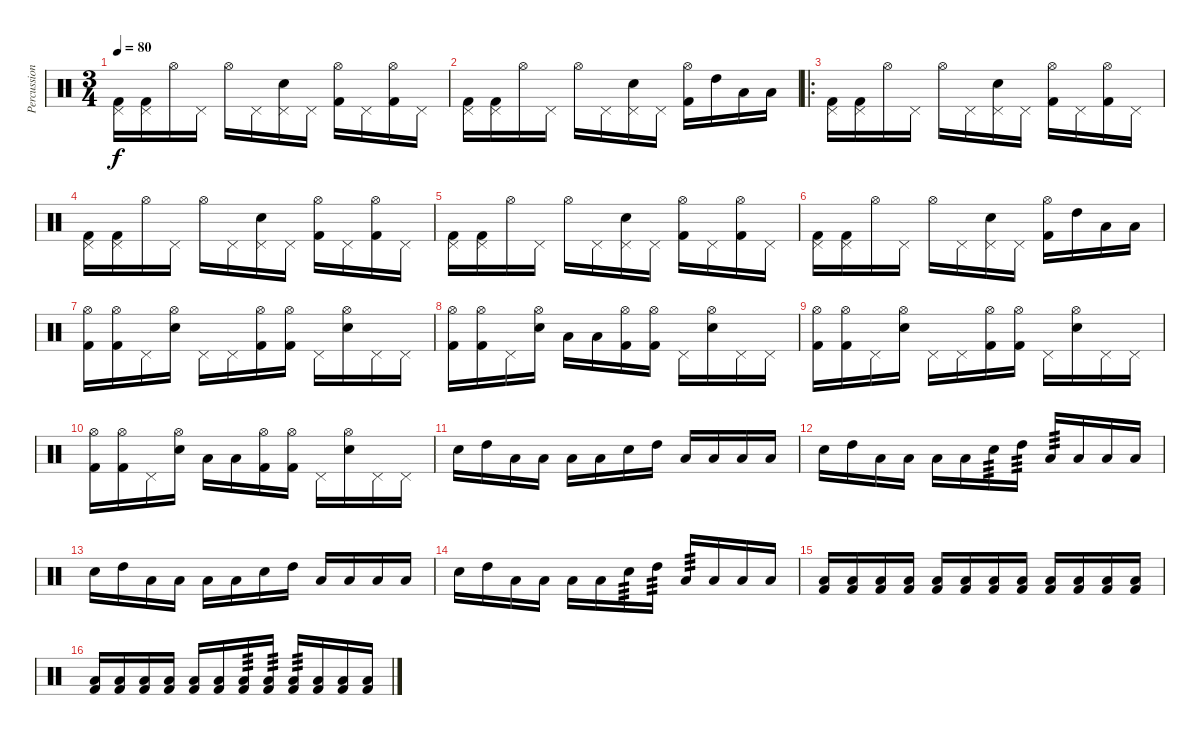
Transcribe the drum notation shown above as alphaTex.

\track ("Percussion" "Percussion") {instrument percussion}
\staff {score}
\articulation defaults
\ts (3 4)
\tempo 80
\clef neutral
\ks c
("Pedal Hi-Hat (hit)" "Kick (hit) 2").16{dy f} ("Pedal Hi-Hat (hit)" "Kick (hit) 2").16 "Hi-Hat (open)".16 "Pedal Hi-Hat (hit)".16 "Hi-Hat (open)".16 "Pedal Hi-Hat (hit)".16 ("Pedal Hi-Hat (hit)" "Electric Snare (hit)").16 "Pedal Hi-Hat (hit)".16 ("Hi-Hat (open)" "Kick (hit) 2").16 "Pedal Hi-Hat (hit)".16 ("Hi-Hat (open)" "Kick (hit) 2").16 "Pedal Hi-Hat (hit)".16 |
("Pedal Hi-Hat (hit)" "Kick (hit) 2").16 ("Pedal Hi-Hat (hit)" "Kick (hit) 2").16 "Hi-Hat (open)".16 "Pedal Hi-Hat (hit)".16 "Hi-Hat (open)".16 "Pedal Hi-Hat (hit)".16 ("Pedal Hi-Hat (hit)" "Electric Snare (hit)").16 "Pedal Hi-Hat (hit)".16 ("Hi-Hat (open)" "Kick (hit) 2").16 "High Tom (hit)".16 "Low Tom (hit)".16 "Low Floor Tom (hit)".16 |
\ro
("Pedal Hi-Hat (hit)" "Kick (hit) 2").16 ("Pedal Hi-Hat (hit)" "Kick (hit) 2").16 "Hi-Hat (open)".16 "Pedal Hi-Hat (hit)".16 "Hi-Hat (open)".16 "Pedal Hi-Hat (hit)".16 ("Pedal Hi-Hat (hit)" "Electric Snare (hit)").16 "Pedal Hi-Hat (hit)".16 ("Hi-Hat (open)" "Kick (hit) 2").16 "Pedal Hi-Hat (hit)".16 ("Hi-Hat (open)" "Kick (hit) 2").16 "Pedal Hi-Hat (hit)".16 |
("Pedal Hi-Hat (hit)" "Kick (hit) 2").16 ("Pedal Hi-Hat (hit)" "Kick (hit) 2").16 "Hi-Hat (open)".16 "Pedal Hi-Hat (hit)".16 "Hi-Hat (open)".16 "Pedal Hi-Hat (hit)".16 ("Pedal Hi-Hat (hit)" "Electric Snare (hit)").16 "Pedal Hi-Hat (hit)".16 ("Hi-Hat (open)" "Kick (hit) 2").16 "Pedal Hi-Hat (hit)".16 ("Hi-Hat (open)" "Kick (hit) 2").16 "Pedal Hi-Hat (hit)".16 |
("Pedal Hi-Hat (hit)" "Kick (hit) 2").16 ("Pedal Hi-Hat (hit)" "Kick (hit) 2").16 "Hi-Hat (open)".16 "Pedal Hi-Hat (hit)".16 "Hi-Hat (open)".16 "Pedal Hi-Hat (hit)".16 ("Pedal Hi-Hat (hit)" "Electric Snare (hit)").16 "Pedal Hi-Hat (hit)".16 ("Hi-Hat (open)" "Kick (hit) 2").16 "Pedal Hi-Hat (hit)".16 ("Hi-Hat (open)" "Kick (hit) 2").16 "Pedal Hi-Hat (hit)".16 |
("Pedal Hi-Hat (hit)" "Kick (hit) 2").16 ("Pedal Hi-Hat (hit)" "Kick (hit) 2").16 "Hi-Hat (open)".16 "Pedal Hi-Hat (hit)".16 "Hi-Hat (open)".16 "Pedal Hi-Hat (hit)".16 ("Pedal Hi-Hat (hit)" "Electric Snare (hit)").16 "Pedal Hi-Hat (hit)".16 ("Hi-Hat (open)" "Kick (hit) 2").16 "High Tom (hit)".16 "Low Tom (hit)".16 "Low Floor Tom (hit)".16 |
("Hi-Hat (open)" "Kick (hit) 2").16 ("Hi-Hat (open)" "Kick (hit) 2").16 "Pedal Hi-Hat (hit)".16 ("Hi-Hat (open)" "Electric Snare (hit)").16 "Pedal Hi-Hat (hit)".16 "Pedal Hi-Hat (hit)".16 ("Hi-Hat (open)" "Kick (hit) 2").16 ("Hi-Hat (open)" "Kick (hit) 2").16 "Pedal Hi-Hat (hit)".16 ("Hi-Hat (open)" "Electric Snare (hit)").16 "Pedal Hi-Hat (hit)".16 "Pedal Hi-Hat (hit)".16 |
("Hi-Hat (open)" "Kick (hit) 2").16 ("Hi-Hat (open)" "Kick (hit) 2").16 "Pedal Hi-Hat (hit)".16 ("Hi-Hat (open)" "Electric Snare (hit)").16 "Low Floor Tom (hit)".16 "Low Tom (hit)".16 ("Hi-Hat (open)" "Kick (hit) 2").16 ("Hi-Hat (open)" "Kick (hit) 2").16 "Pedal Hi-Hat (hit)".16 ("Hi-Hat (open)" "Electric Snare (hit)").16 "Pedal Hi-Hat (hit)".16 "Pedal Hi-Hat (hit)".16 |
("Hi-Hat (open)" "Kick (hit) 2").16 ("Hi-Hat (open)" "Kick (hit) 2").16 "Pedal Hi-Hat (hit)".16 ("Hi-Hat (open)" "Electric Snare (hit)").16 "Pedal Hi-Hat (hit)".16 "Pedal Hi-Hat (hit)".16 ("Hi-Hat (open)" "Kick (hit) 2").16 ("Hi-Hat (open)" "Kick (hit) 2").16 "Pedal Hi-Hat (hit)".16 ("Hi-Hat (open)" "Electric Snare (hit)").16 "Pedal Hi-Hat (hit)".16 "Pedal Hi-Hat (hit)".16 |
("Hi-Hat (open)" "Kick (hit) 2").16 ("Hi-Hat (open)" "Kick (hit) 2").16 "Pedal Hi-Hat (hit)".16 ("Hi-Hat (open)" "Electric Snare (hit)").16 "Low Floor Tom (hit)".16 "Low Tom (hit)".16 ("Hi-Hat (open)" "Kick (hit) 2").16 ("Hi-Hat (open)" "Kick (hit) 2").16 "Pedal Hi-Hat (hit)".16 ("Hi-Hat (open)" "Electric Snare (hit)").16 "Pedal Hi-Hat (hit)".16 "Pedal Hi-Hat (hit)".16 |
"Electric Snare (hit)".16 "High Tom (hit)".16 "Low Tom (hit)".16 "Low Floor Tom (hit)".16 "Low Floor Tom (hit)".16 "Low Floor Tom (hit)".16 "Electric Snare (hit)".16 "High Tom (hit)".16 "Low Tom (hit)".16 "Low Floor Tom (hit)".16 "Low Floor Tom (hit)".16 "Low Floor Tom (hit)".16 |
"Electric Snare (hit)".16 "High Tom (hit)".16 "Low Tom (hit)".16 "Low Floor Tom (hit)".16 "Low Floor Tom (hit)".16 "Low Floor Tom (hit)".16 "Electric Snare (hit)".16{tp 3} "High Tom (hit)".16{tp 3} "Low Tom (hit)".16{tp 3} "Low Floor Tom (hit)".16 "Low Floor Tom (hit)".16 "Low Floor Tom (hit)".16 |
"Electric Snare (hit)".16 "High Tom (hit)".16 "Low Tom (hit)".16 "Low Floor Tom (hit)".16 "Low Floor Tom (hit)".16 "Low Floor Tom (hit)".16 "Electric Snare (hit)".16 "High Tom (hit)".16 "Low Tom (hit)".16 "Low Floor Tom (hit)".16 "Low Floor Tom (hit)".16 "Low Floor Tom (hit)".16 |
"Electric Snare (hit)".16 "High Tom (hit)".16 "Low Tom (hit)".16 "Low Floor Tom (hit)".16 "Low Floor Tom (hit)".16 "Low Floor Tom (hit)".16 "Electric Snare (hit)".16{tp 3} "High Tom (hit)".16{tp 3} "Low Tom (hit)".16{tp 3} "Low Floor Tom (hit)".16 "Low Floor Tom (hit)".16 "Low Floor Tom (hit)".16 |
("Low Floor Tom (hit)" "Kick (hit) 2").16 ("Low Floor Tom (hit)" "Kick (hit) 2").16 ("Low Floor Tom (hit)" "Kick (hit) 2").16 ("Low Floor Tom (hit)" "Kick (hit) 2").16 ("Low Floor Tom (hit)" "Kick (hit) 2").16 ("Low Floor Tom (hit)" "Kick (hit) 2").16 ("Low Floor Tom (hit)" "Kick (hit) 2").16 ("Low Floor Tom (hit)" "Kick (hit) 2").16 ("Low Floor Tom (hit)" "Kick (hit) 2").16 ("Low Floor Tom (hit)" "Kick (hit) 2").16 ("Low Floor Tom (hit)" "Kick (hit) 2").16 ("Low Floor Tom (hit)" "Kick (hit) 2").16 |
("Low Floor Tom (hit)" "Kick (hit) 2").16 ("Low Floor Tom (hit)" "Kick (hit) 2").16 ("Low Floor Tom (hit)" "Kick (hit) 2").16 ("Low Floor Tom (hit)" "Kick (hit) 2").16 ("Low Floor Tom (hit)" "Kick (hit) 2").16 ("Low Floor Tom (hit)" "Kick (hit) 2").16 ("Low Floor Tom (hit)" "Kick (hit) 2").16{tp 3} ("Low Floor Tom (hit)" "Kick (hit) 2").16{tp 3} ("Low Floor Tom (hit)" "Kick (hit) 2").16{tp 3} ("Low Floor Tom (hit)" "Kick (hit) 2").16 ("Low Floor Tom (hit)" "Kick (hit) 2").16 ("Low Floor Tom (hit)" "Kick (hit) 2").16
